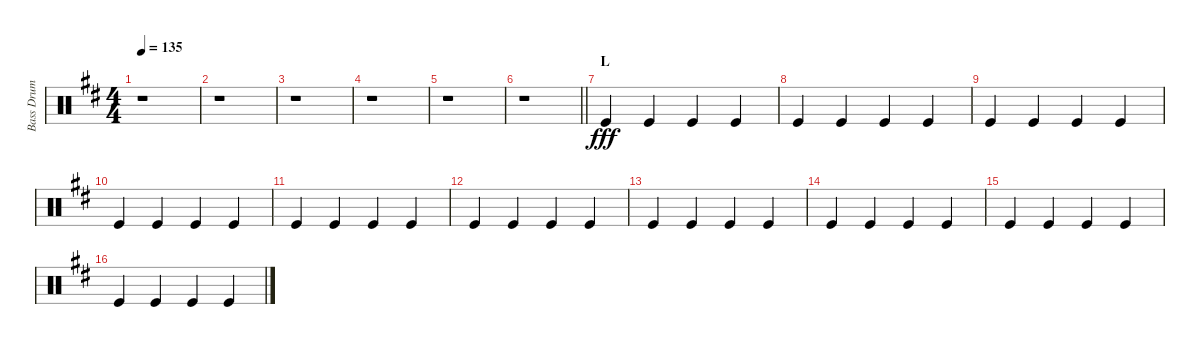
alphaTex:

\track ("Bass Drum" "Bass Drum") {instrument percussion}
\staff {score}
\articulation defaults
\ts (4 4)
\tempo 135
\clef neutral
\ks d
r.1{dy fff} |
r.1 |
r.1 |
r.1 |
r.1 |
\barLineRight lightlight
r.1 |
\section ("" "L")
"Kick (hit)".4 "Kick (hit)".4 "Kick (hit)".4 "Kick (hit)".4 |
"Kick (hit)".4 "Kick (hit)".4 "Kick (hit)".4 "Kick (hit)".4 |
"Kick (hit)".4 "Kick (hit)".4 "Kick (hit)".4 "Kick (hit)".4 |
"Kick (hit)".4 "Kick (hit)".4 "Kick (hit)".4 "Kick (hit)".4 |
"Kick (hit)".4 "Kick (hit)".4 "Kick (hit)".4 "Kick (hit)".4 |
"Kick (hit)".4 "Kick (hit)".4 "Kick (hit)".4 "Kick (hit)".4 |
"Kick (hit)".4 "Kick (hit)".4 "Kick (hit)".4 "Kick (hit)".4 |
"Kick (hit)".4 "Kick (hit)".4 "Kick (hit)".4 "Kick (hit)".4 |
"Kick (hit)".4 "Kick (hit)".4 "Kick (hit)".4 "Kick (hit)".4 |
"Kick (hit)".4 "Kick (hit)".4 "Kick (hit)".4 "Kick (hit)".4
